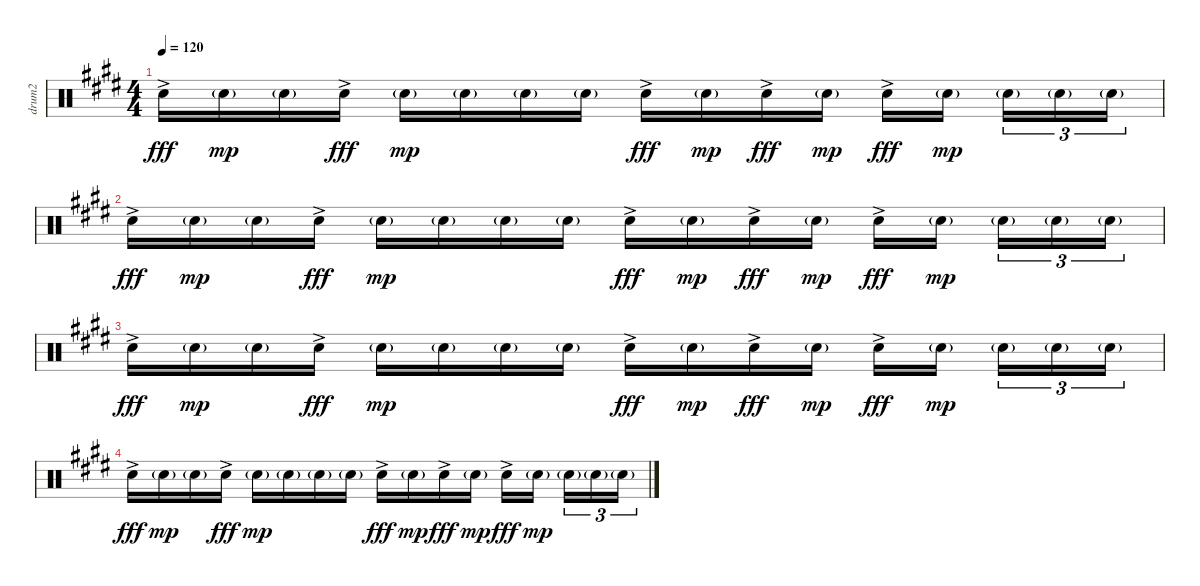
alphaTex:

\track ("drum2" "drum2") {instrument percussion}
\staff {score}
\articulation defaults
\ts (4 4)
\tempo 120
\clef neutral
\ks e "Snare (hit) 2"{ac}.16{dy fff} "Snare (hit) 2"{g}.16{dy mp} "Snare (hit) 2"{g}.16 "Snare (hit) 2"{ac}.16{dy fff} "Snare (hit) 2"{g}.16{dy mp} "Snare (hit) 2"{g}.16 "Snare (hit) 2"{g}.16 "Snare (hit) 2"{g}.16 "Snare (hit) 2"{ac}.16{dy fff} "Snare (hit) 2"{g}.16{dy mp} "Snare (hit) 2"{ac}.16{dy fff} "Snare (hit) 2"{g}.16{dy mp} "Snare (hit) 2"{ac}.16{dy fff} "Snare (hit) 2"{g}.16{dy mp} "Snare (hit) 2"{g}.16{tu (3 2)} "Snare (hit) 2"{g}.16{tu (3 2)} "Snare (hit) 2"{g}.16{tu (3 2)}
|
"Snare (hit) 2"{ac}.16{dy fff} "Snare (hit) 2"{g}.16{dy mp} "Snare (hit) 2"{g}.16 "Snare (hit) 2"{ac}.16{dy fff} "Snare (hit) 2"{g}.16{dy mp} "Snare (hit) 2"{g}.16 "Snare (hit) 2"{g}.16 "Snare (hit) 2"{g}.16 "Snare (hit) 2"{ac}.16{dy fff} "Snare (hit) 2"{g}.16{dy mp} "Snare (hit) 2"{ac}.16{dy fff} "Snare (hit) 2"{g}.16{dy mp} "Snare (hit) 2"{ac}.16{dy fff} "Snare (hit) 2"{g}.16{dy mp} "Snare (hit) 2"{g}.16{tu (3 2)} "Snare (hit) 2"{g}.16{tu (3 2)} "Snare (hit) 2"{g}.16{tu (3 2)} |
"Snare (hit) 2"{ac}.16{dy fff} "Snare (hit) 2"{g}.16{dy mp} "Snare (hit) 2"{g}.16 "Snare (hit) 2"{ac}.16{dy fff} "Snare (hit) 2"{g}.16{dy mp} "Snare (hit) 2"{g}.16 "Snare (hit) 2"{g}.16 "Snare (hit) 2"{g}.16 "Snare (hit) 2"{ac}.16{dy fff} "Snare (hit) 2"{g}.16{dy mp} "Snare (hit) 2"{ac}.16{dy fff} "Snare (hit) 2"{g}.16{dy mp} "Snare (hit) 2"{ac}.16{dy fff} "Snare (hit) 2"{g}.16{dy mp} "Snare (hit) 2"{g}.16{tu (3 2)} "Snare (hit) 2"{g}.16{tu (3 2)} "Snare (hit) 2"{g}.16{tu (3 2)} |
"Snare (hit) 2"{ac}.16{dy fff} "Snare (hit) 2"{g}.16{dy mp} "Snare (hit) 2"{g}.16 "Snare (hit) 2"{ac}.16{dy fff} "Snare (hit) 2"{g}.16{dy mp} "Snare (hit) 2"{g}.16 "Snare (hit) 2"{g}.16 "Snare (hit) 2"{g}.16 "Snare (hit) 2"{ac}.16{dy fff} "Snare (hit) 2"{g}.16{dy mp} "Snare (hit) 2"{ac}.16{dy fff} "Snare (hit) 2"{g}.16{dy mp} "Snare (hit) 2"{ac}.16{dy fff} "Snare (hit) 2"{g}.16{dy mp} "Snare (hit) 2"{g}.16{tu (3 2)} "Snare (hit) 2"{g}.16{tu (3 2)} "Snare (hit) 2"{g}.16{tu (3 2)}
